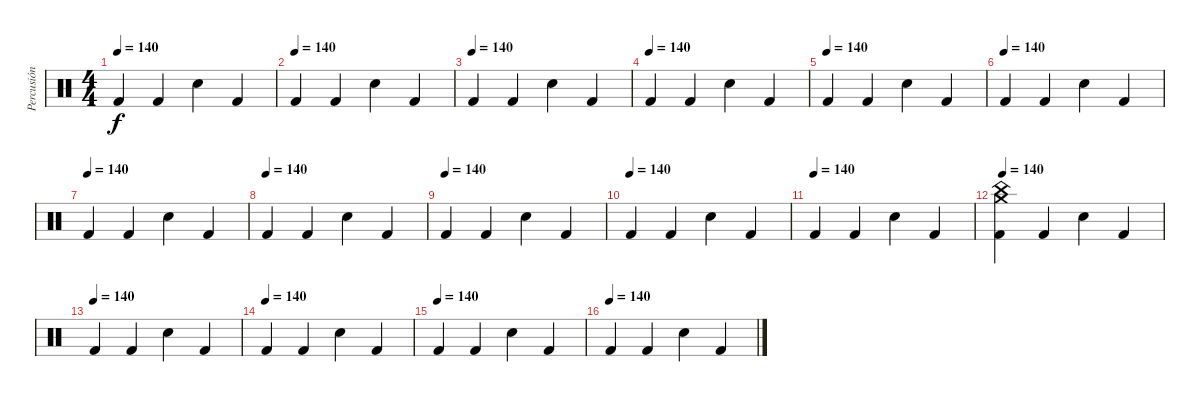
\track ("Percusión" "Percusión") {instrument percussion}
\staff {score}
\articulation defaults
\ts (4 4)
\tempo 140
\clef neutral
\ks c "Kick (hit) 2".4{dy f} "Kick (hit) 2".4 "Snare (hit) 2".4 "Kick (hit) 2".4
|
\tempo (140)
"Kick (hit) 2".4 "Kick (hit) 2".4 "Snare (hit) 2".4 "Kick (hit) 2".4 |
\tempo (140)
"Kick (hit) 2".4 "Kick (hit) 2".4 "Snare (hit) 2".4 "Kick (hit) 2".4 |
\tempo (140)
"Kick (hit) 2".4 "Kick (hit) 2".4 "Snare (hit) 2".4 "Kick (hit) 2".4 |
\tempo (140)
"Kick (hit) 2".4 "Kick (hit) 2".4 "Snare (hit) 2".4 "Kick (hit) 2".4 |
\tempo (140)
"Kick (hit) 2".4 "Kick (hit) 2".4 "Snare (hit) 2".4 "Kick (hit) 2".4 |
\tempo (140)
"Kick (hit) 2".4 "Kick (hit) 2".4 "Snare (hit) 2".4 "Kick (hit) 2".4 |
\tempo (140)
"Kick (hit) 2".4 "Kick (hit) 2".4 "Snare (hit) 2".4 "Kick (hit) 2".4 |
\tempo (140)
"Kick (hit) 2".4 "Kick (hit) 2".4 "Snare (hit) 2".4 "Kick (hit) 2".4 |
\tempo (140)
"Kick (hit) 2".4 "Kick (hit) 2".4 "Snare (hit) 2".4 "Kick (hit) 2".4 |
\tempo (140)
"Kick (hit) 2".4 "Kick (hit) 2".4 "Snare (hit) 2".4 "Kick (hit) 2".4 |
\tempo 140
("Crash medium (hit)" "China (hit)" "Kick (hit) 2").4 "Kick (hit) 2".4 "Snare (hit) 2".4 "Kick (hit) 2".4 |
\tempo (140)
"Kick (hit) 2".4 "Kick (hit) 2".4 "Snare (hit) 2".4 "Kick (hit) 2".4 |
\tempo (140)
"Kick (hit) 2".4 "Kick (hit) 2".4 "Snare (hit) 2".4 "Kick (hit) 2".4 |
\tempo (140)
"Kick (hit) 2".4 "Kick (hit) 2".4 "Snare (hit) 2".4 "Kick (hit) 2".4 |
\tempo (140)
"Kick (hit) 2".4 "Kick (hit) 2".4 "Snare (hit) 2".4 "Kick (hit) 2".4
